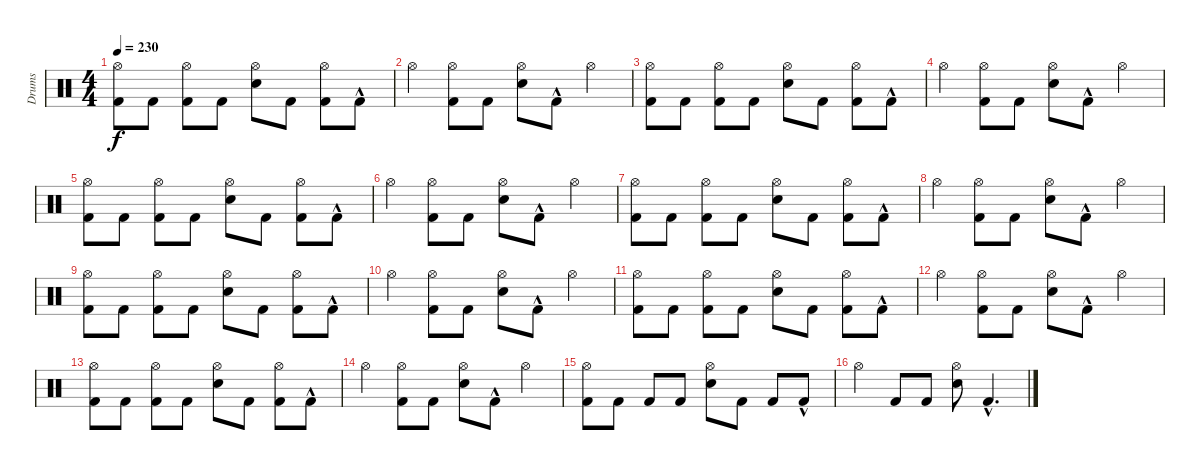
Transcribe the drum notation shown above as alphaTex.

\track ("Drums" "Drums") {instrument percussion}
\staff {score}
\articulation defaults
\ts (4 4)
\tempo 230
\clef neutral
\ks c
("Kick (hit) 2" "Hi-Hat (open)").8{dy f} "Kick (hit) 2".8 ("Hi-Hat (open)" "Kick (hit) 2").8 "Kick (hit) 2".8 ("Hi-Hat (open)" "Electric Snare (hit)").8 "Kick (hit) 2".8 ("Hi-Hat (open)" "Kick (hit) 2").8 "Kick (hit) 2"{hac}.8 |
"Hi-Hat (open)".4 ("Hi-Hat (open)" "Kick (hit) 2").8 "Kick (hit) 2".8 ("Hi-Hat (open)" "Electric Snare (hit)").8 "Kick (hit) 2"{hac}.8 "Hi-Hat (open)".4 |
("Hi-Hat (open)" "Kick (hit) 2").8 "Kick (hit) 2".8 ("Hi-Hat (open)" "Kick (hit) 2").8 "Kick (hit) 2".8 ("Hi-Hat (open)" "Electric Snare (hit)").8 "Kick (hit) 2".8 ("Hi-Hat (open)" "Kick (hit) 2").8 "Kick (hit) 2"{hac}.8 |
"Hi-Hat (open)".4 ("Hi-Hat (open)" "Kick (hit) 2").8 "Kick (hit) 2".8 ("Hi-Hat (open)" "Electric Snare (hit)").8 "Kick (hit) 2"{hac}.8 "Hi-Hat (open)".4 |
("Kick (hit) 2" "Hi-Hat (open)").8 "Kick (hit) 2".8 ("Hi-Hat (open)" "Kick (hit) 2").8 "Kick (hit) 2".8 ("Hi-Hat (open)" "Electric Snare (hit)").8 "Kick (hit) 2".8 ("Hi-Hat (open)" "Kick (hit) 2").8 "Kick (hit) 2"{hac}.8 |
"Hi-Hat (open)".4 ("Hi-Hat (open)" "Kick (hit) 2").8 "Kick (hit) 2".8 ("Hi-Hat (open)" "Electric Snare (hit)").8 "Kick (hit) 2"{hac}.8 "Hi-Hat (open)".4 |
("Hi-Hat (open)" "Kick (hit) 2").8 "Kick (hit) 2".8 ("Hi-Hat (open)" "Kick (hit) 2").8 "Kick (hit) 2".8 ("Hi-Hat (open)" "Electric Snare (hit)").8 "Kick (hit) 2".8 ("Hi-Hat (open)" "Kick (hit) 2").8 "Kick (hit) 2"{hac}.8 |
"Hi-Hat (open)".4 ("Hi-Hat (open)" "Kick (hit) 2").8 "Kick (hit) 2".8 ("Hi-Hat (open)" "Electric Snare (hit)").8 "Kick (hit) 2"{hac}.8 "Hi-Hat (open)".4 |
("Kick (hit) 2" "Hi-Hat (open)").8 "Kick (hit) 2".8 ("Hi-Hat (open)" "Kick (hit) 2").8 "Kick (hit) 2".8 ("Hi-Hat (open)" "Electric Snare (hit)").8 "Kick (hit) 2".8 ("Hi-Hat (open)" "Kick (hit) 2").8 "Kick (hit) 2"{hac}.8 |
"Hi-Hat (open)".4 ("Hi-Hat (open)" "Kick (hit) 2").8 "Kick (hit) 2".8 ("Hi-Hat (open)" "Electric Snare (hit)").8 "Kick (hit) 2"{hac}.8 "Hi-Hat (open)".4 |
("Hi-Hat (open)" "Kick (hit) 2").8 "Kick (hit) 2".8 ("Hi-Hat (open)" "Kick (hit) 2").8 "Kick (hit) 2".8 ("Hi-Hat (open)" "Electric Snare (hit)").8 "Kick (hit) 2".8 ("Hi-Hat (open)" "Kick (hit) 2").8 "Kick (hit) 2"{hac}.8 |
"Hi-Hat (open)".4 ("Hi-Hat (open)" "Kick (hit) 2").8 "Kick (hit) 2".8 ("Hi-Hat (open)" "Electric Snare (hit)").8 "Kick (hit) 2"{hac}.8 "Hi-Hat (open)".4 |
("Kick (hit) 2" "Hi-Hat (open)").8 "Kick (hit) 2".8 ("Hi-Hat (open)" "Kick (hit) 2").8 "Kick (hit) 2".8 ("Hi-Hat (open)" "Electric Snare (hit)").8 "Kick (hit) 2".8 ("Hi-Hat (open)" "Kick (hit) 2").8 "Kick (hit) 2"{hac}.8 |
"Hi-Hat (open)".4 ("Kick (hit) 2" "Hi-Hat (open)").8 "Kick (hit) 2".8 ("Electric Snare (hit)" "Hi-Hat (open)").8 "Kick (hit) 2"{hac}.8 "Hi-Hat (open)".4 |
("Hi-Hat (open)" "Kick (hit) 2").8 "Kick (hit) 2".8 "Kick (hit) 2".8 "Kick (hit) 2".8 ("Hi-Hat (open)" "Electric Snare (hit)").8 "Kick (hit) 2".8 "Kick (hit) 2".8 "Kick (hit) 2"{hac}.8 |
"Hi-Hat (open)".4 "Kick (hit) 2".8 "Kick (hit) 2".8 ("Hi-Hat (open)" "Electric Snare (hit)").8 "Kick (hit) 2"{hac}.4{d}
